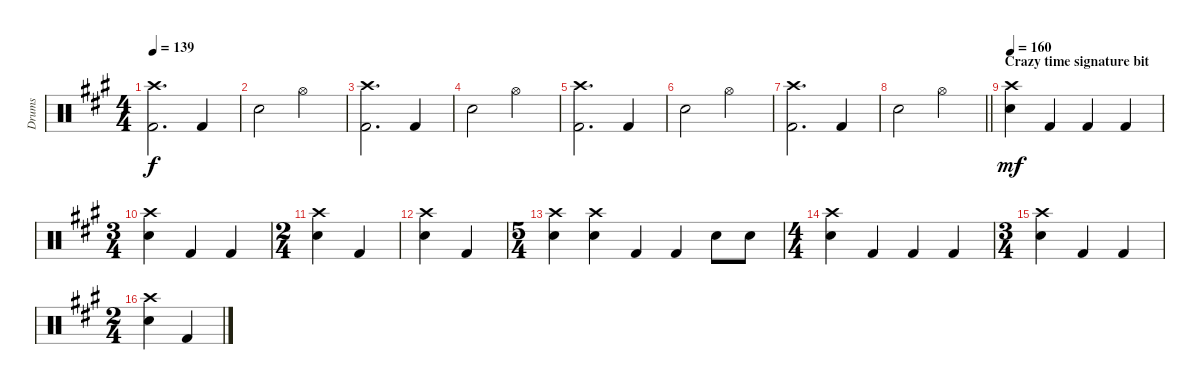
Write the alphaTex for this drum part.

\track ("Drums" "Drums") {instrument percussion}
\staff {score}
\articulation defaults
\ts (4 4)
\tempo 139
\clef neutral
\ks a
("Crash high (hit)" "Kick (hit) 2").2{d dy f} "Kick (hit) 2".4 |
"Snare (hit) 2".2 "Hi-Hat (open)".2 |
("Crash high (hit)" "Kick (hit) 2").2{d} "Kick (hit) 2".4 |
"Snare (hit) 2".2 "Hi-Hat (open)".2 |
("Crash high (hit)" "Kick (hit) 2").2{d} "Kick (hit) 2".4 |
"Snare (hit) 2".2 "Hi-Hat (open)".2 |
("Crash high (hit)" "Kick (hit) 2").2{d} "Kick (hit) 2".4 |
\barLineRight lightlight "Snare (hit) 2".2 "Hi-Hat (open)".2
|
\section ("" "Crazy time signature bit")
\tempo 160
("Crash high (hit)" "Snare (hit) 2").4{dy mf} "Kick (hit) 2".4 "Kick (hit) 2".4 "Kick (hit) 2".4 |
\ts (3 4)
("Crash high (hit)" "Snare (hit) 2").4 "Kick (hit) 2".4 "Kick (hit) 2".4 |
\ts (2 4)
("Crash high (hit)" "Snare (hit) 2").4 "Kick (hit) 2".4 |
("Crash high (hit)" "Snare (hit) 2").4 "Kick (hit) 2".4 |
\ts (5 4)
("Crash high (hit)" "Snare (hit) 2").4 ("Crash high (hit)" "Snare (hit) 2").4 "Kick (hit) 2".4 "Kick (hit) 2".4 "Snare (hit) 2".8 "Snare (hit) 2".8 |
\ts (4 4)
("Crash high (hit)" "Snare (hit) 2").4 "Kick (hit) 2".4 "Kick (hit) 2".4 "Kick (hit) 2".4 |
\ts (3 4)
("Crash high (hit)" "Snare (hit) 2").4 "Kick (hit) 2".4 "Kick (hit) 2".4 |
\ts (2 4)
("Crash high (hit)" "Snare (hit) 2").4 "Kick (hit) 2".4
